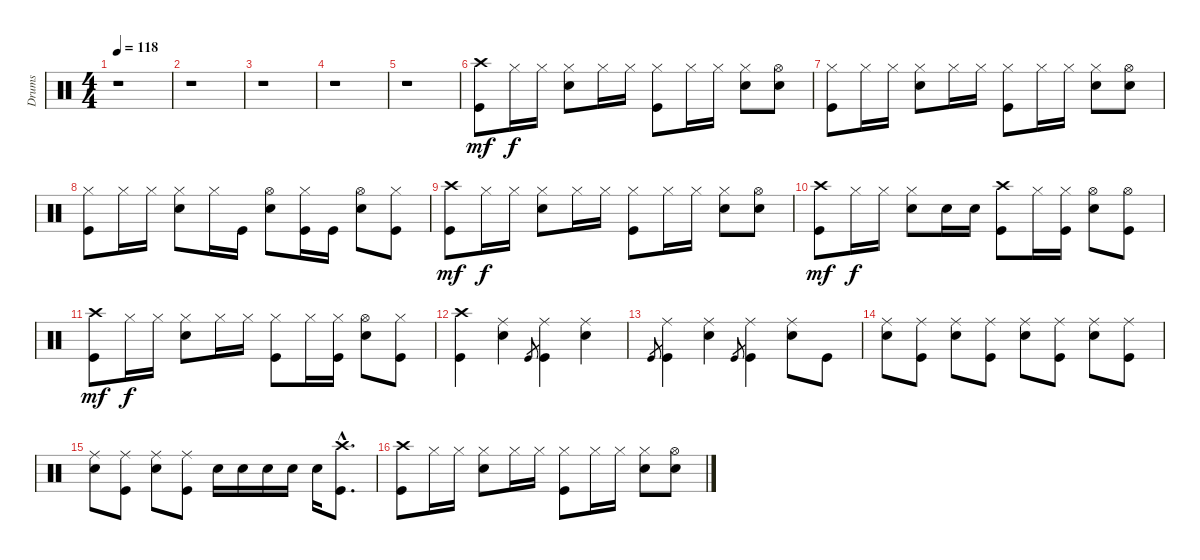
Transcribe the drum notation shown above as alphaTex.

\track ("Drums" "Drums") {instrument percussion}
\staff {score}
\articulation defaults
\ts (4 4)
\tempo 118
\clef neutral
\ks c
r.1{dy p} |
r.1 |
r.1 |
r.1 |
r.1 |
("Crash high (hit)" "Kick (hit)").8{dy mf} "Hi-Hat (closed)".16{dy f} "Hi-Hat (closed)".16 ("Hi-Hat (closed)" "Snare (hit) 2").8 "Hi-Hat (closed)".16 "Hi-Hat (closed)".16 ("Hi-Hat (closed)" "Kick (hit)").8 "Hi-Hat (closed)".16 "Hi-Hat (closed)".16 ("Hi-Hat (closed)" "Snare (hit) 2").8 ("Hi-Hat (open)" "Snare (hit) 2").8 |
("Hi-Hat (closed)" "Kick (hit)").8 "Hi-Hat (closed)".16 "Hi-Hat (closed)".16 ("Hi-Hat (closed)" "Snare (hit) 2").8 "Hi-Hat (closed)".16 "Hi-Hat (closed)".16 ("Hi-Hat (closed)" "Kick (hit)").8 "Hi-Hat (closed)".16 "Hi-Hat (closed)".16 ("Hi-Hat (closed)" "Snare (hit) 2").8 ("Hi-Hat (open)" "Snare (hit) 2").8 |
("Hi-Hat (closed)" "Kick (hit)").8 "Hi-Hat (closed)".16 "Hi-Hat (closed)".16 ("Hi-Hat (closed)" "Snare (hit) 2").8 "Hi-Hat (closed)".16 "Kick (hit)".16 ("Hi-Hat (open)" "Snare (hit) 2").8 ("Hi-Hat (closed)" "Kick (hit)").16 "Kick (hit)".16 ("Hi-Hat (open)" "Snare (hit) 2").8 ("Hi-Hat (closed)" "Kick (hit)").8 |
("Crash high (hit)" "Kick (hit)").8{dy mf} "Hi-Hat (closed)".16{dy f} "Hi-Hat (closed)".16 ("Hi-Hat (closed)" "Snare (hit) 2").8 "Hi-Hat (closed)".16 "Hi-Hat (closed)".16 ("Hi-Hat (closed)" "Kick (hit)").8 "Hi-Hat (closed)".16 "Hi-Hat (closed)".16 ("Hi-Hat (closed)" "Snare (hit) 2").8 ("Hi-Hat (open)" "Snare (hit) 2").8 |
("Crash high (hit)" "Kick (hit)").8{dy mf} "Hi-Hat (closed)".16{dy f} "Hi-Hat (closed)".16 ("Hi-Hat (closed)" "Snare (hit) 2").8 "Snare (hit) 2".16 "Snare (hit) 2".16 ("Crash high (hit)" "Kick (hit)").8 "Hi-Hat (closed)".16 ("Hi-Hat (closed)" "Kick (hit)").16 ("Hi-Hat (open)" "Snare (hit) 2").8 ("Hi-Hat (open)" "Kick (hit)").8 |
("Crash high (hit)" "Kick (hit)").8{dy mf} "Hi-Hat (closed)".16{dy f} "Hi-Hat (closed)".16 ("Hi-Hat (closed)" "Snare (hit) 2").8 "Hi-Hat (closed)".16 "Hi-Hat (closed)".16 ("Hi-Hat (closed)" "Kick (hit)").8 "Hi-Hat (closed)".16 ("Hi-Hat (closed)" "Kick (hit)").16 ("Hi-Hat (open)" "Snare (hit) 2").8 ("Hi-Hat (closed)" "Kick (hit)").8 |
("Crash high (hit)" "Kick (hit)").4 ("Ride (middle)" "Snare (hit) 2").4 "Kick (hit)".8{gr} ("Ride (middle)" "Kick (hit)").4 ("Ride (middle)" "Snare (hit) 2").4 |
"Kick (hit)".8{gr} ("Ride (middle)" "Kick (hit)").4 ("Ride (middle)" "Snare (hit) 2").4 "Kick (hit)".8{gr} ("Ride (middle)" "Kick (hit)").4 ("Ride (middle)" "Snare (hit) 2").8 "Kick (hit)".8 |
("Ride (middle)" "Snare (hit) 2").8 ("Ride (middle)" "Kick (hit)").8 ("Ride (middle)" "Snare (hit) 2").8 ("Ride (middle)" "Kick (hit)").8 ("Ride (middle)" "Snare (hit) 2").8 ("Ride (middle)" "Kick (hit)").8 ("Ride (middle)" "Snare (hit) 2").8 ("Ride (middle)" "Kick (hit)").8 |
("Ride (middle)" "Snare (hit) 2").8 ("Ride (middle)" "Kick (hit)").8 ("Ride (middle)" "Snare (hit) 2").8 ("Ride (middle)" "Kick (hit)").8 "Snare (hit) 2".16 "Snare (hit) 2".16 "Snare (hit) 2".16 "Snare (hit) 2".16 "Snare (hit) 2".16 ("Crash high (hit)"{hac} "Kick (hit)"{hac}).8{d} |
("Crash high (hit)" "Kick (hit)").8 "Hi-Hat (closed)".16 "Hi-Hat (closed)".16 ("Hi-Hat (closed)" "Snare (hit) 2").8 "Hi-Hat (closed)".16 "Hi-Hat (closed)".16 ("Hi-Hat (closed)" "Kick (hit)").8 "Hi-Hat (closed)".16 "Hi-Hat (closed)".16 ("Hi-Hat (closed)" "Snare (hit) 2").8 ("Hi-Hat (open)" "Snare (hit) 2").8
